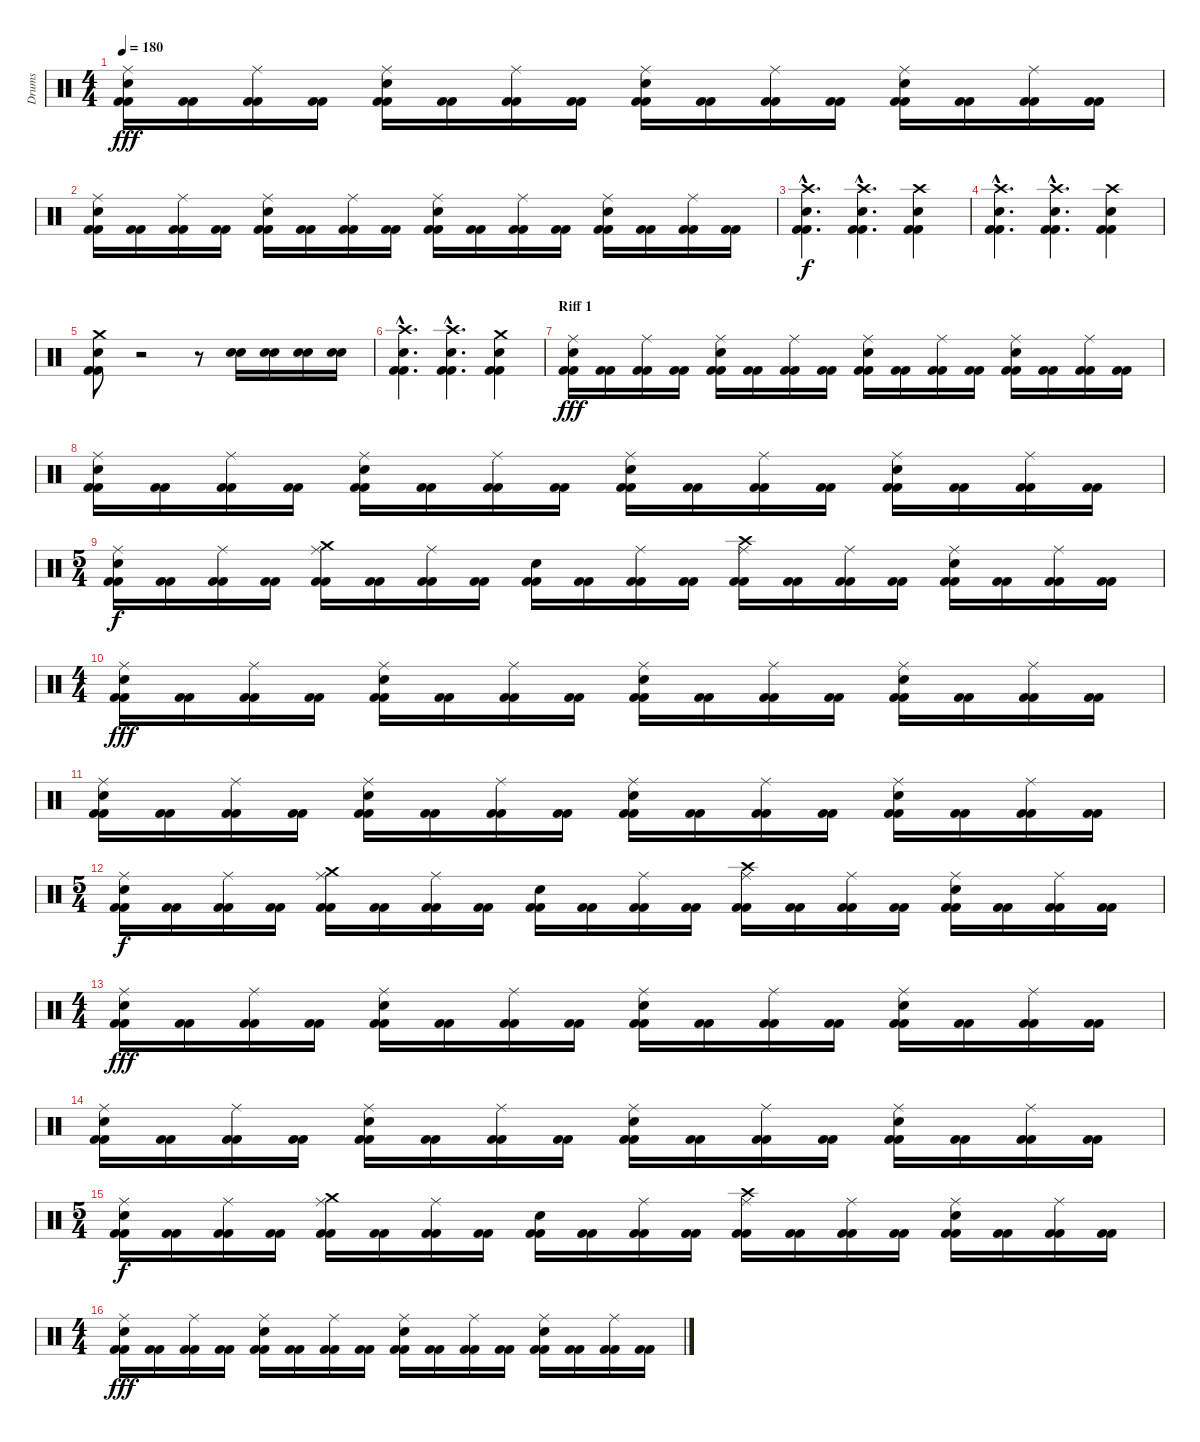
\track ("Drums" "Drums") {instrument percussion}
\staff {score}
\articulation defaults
\ts (4 4)
\tempo 180
\clef neutral
\ks c
("Kick (hit) 2" "Kick (hit) 2" "Electric Snare (hit)" "Ride (middle)").16{dy fff} ("Kick (hit) 2" "Kick (hit) 2").16 ("Kick (hit) 2" "Kick (hit) 2" "Ride (middle)").16 ("Kick (hit) 2" "Kick (hit) 2").16 ("Kick (hit) 2" "Kick (hit) 2" "Electric Snare (hit)" "Ride (middle)").16 ("Kick (hit) 2" "Kick (hit) 2").16 ("Kick (hit) 2" "Kick (hit) 2" "Ride (middle)").16 ("Kick (hit) 2" "Kick (hit) 2").16 ("Kick (hit) 2" "Kick (hit) 2" "Electric Snare (hit)" "Ride (middle)").16 ("Kick (hit) 2" "Kick (hit) 2").16 ("Kick (hit) 2" "Kick (hit) 2" "Ride (middle)").16 ("Kick (hit) 2" "Kick (hit) 2").16 ("Kick (hit) 2" "Kick (hit) 2" "Electric Snare (hit)" "Ride (middle)").16 ("Kick (hit) 2" "Kick (hit) 2").16 ("Kick (hit) 2" "Kick (hit) 2" "Ride (middle)").16 ("Kick (hit) 2" "Kick (hit) 2").16 |
("Kick (hit) 2" "Kick (hit) 2" "Electric Snare (hit)" "Ride (middle)").16 ("Kick (hit) 2" "Kick (hit) 2").16 ("Kick (hit) 2" "Kick (hit) 2" "Ride (middle)").16 ("Kick (hit) 2" "Kick (hit) 2").16 ("Kick (hit) 2" "Kick (hit) 2" "Electric Snare (hit)" "Ride (middle)").16 ("Kick (hit) 2" "Kick (hit) 2").16 ("Kick (hit) 2" "Kick (hit) 2" "Ride (middle)").16 ("Kick (hit) 2" "Kick (hit) 2").16 ("Kick (hit) 2" "Kick (hit) 2" "Electric Snare (hit)" "Ride (middle)").16 ("Kick (hit) 2" "Kick (hit) 2").16 ("Kick (hit) 2" "Kick (hit) 2" "Ride (middle)").16 ("Kick (hit) 2" "Kick (hit) 2").16 ("Kick (hit) 2" "Kick (hit) 2" "Electric Snare (hit)" "Ride (middle)").16 ("Kick (hit) 2" "Kick (hit) 2").16 ("Kick (hit) 2" "Kick (hit) 2" "Ride (middle)").16 ("Kick (hit) 2" "Kick (hit) 2").16 |
("Kick (hit) 2"{hac} "Kick (hit) 2"{hac} "Electric Snare (hit)"{hac} "Crash high (hit)"{hac}).4{d dy f} ("Kick (hit) 2"{hac} "Kick (hit) 2"{hac} "Electric Snare (hit)"{hac} "Crash high (hit)"{hac}).4{d} ("Kick (hit) 2" "Kick (hit) 2" "Electric Snare (hit)" "Crash high (hit)").4 |
("Kick (hit) 2"{hac} "Kick (hit) 2"{hac} "Electric Snare (hit)"{hac} "Crash high (hit)"{hac}).4{d} ("Kick (hit) 2"{hac} "Kick (hit) 2"{hac} "Electric Snare (hit)"{hac} "Crash high (hit)"{hac}).4{d} ("Kick (hit) 2" "Kick (hit) 2" "Electric Snare (hit)" "Crash high (hit)").4 |
("Kick (hit) 2" "Kick (hit) 2" "Electric Snare (hit)" "Crash medium (hit)").8 r.2 r.8 ("Snare (hit) 2" "Snare (hit) 2").16 ("Snare (hit) 2" "Snare (hit) 2").16 ("Snare (hit) 2" "Snare (hit) 2").16 ("Snare (hit) 2" "Snare (hit) 2").16 |
("Kick (hit) 2"{hac} "Kick (hit) 2"{hac} "Electric Snare (hit)"{hac} "Crash high (hit)"{hac}).4{d} ("Kick (hit) 2"{hac} "Kick (hit) 2"{hac} "Electric Snare (hit)"{hac} "Crash high (hit)"{hac}).4{d} ("Kick (hit) 2" "Kick (hit) 2" "Electric Snare (hit)" "Crash medium (hit)").4 |
\section ("" "Riff 1")
("Kick (hit) 2" "Kick (hit) 2" "Electric Snare (hit)" "Ride (middle)").16{dy fff} ("Kick (hit) 2" "Kick (hit) 2").16 ("Kick (hit) 2" "Kick (hit) 2" "Ride (middle)").16 ("Kick (hit) 2" "Kick (hit) 2").16 ("Kick (hit) 2" "Kick (hit) 2" "Electric Snare (hit)" "Ride (middle)").16 ("Kick (hit) 2" "Kick (hit) 2").16 ("Kick (hit) 2" "Kick (hit) 2" "Ride (middle)").16 ("Kick (hit) 2" "Kick (hit) 2").16 ("Kick (hit) 2" "Kick (hit) 2" "Electric Snare (hit)" "Ride (middle)").16 ("Kick (hit) 2" "Kick (hit) 2").16 ("Kick (hit) 2" "Kick (hit) 2" "Ride (middle)").16 ("Kick (hit) 2" "Kick (hit) 2").16 ("Kick (hit) 2" "Kick (hit) 2" "Electric Snare (hit)" "Ride (middle)").16 ("Kick (hit) 2" "Kick (hit) 2").16 ("Kick (hit) 2" "Kick (hit) 2" "Ride (middle)").16 ("Kick (hit) 2" "Kick (hit) 2").16 |
("Kick (hit) 2" "Kick (hit) 2" "Electric Snare (hit)" "Ride (middle)").16 ("Kick (hit) 2" "Kick (hit) 2").16 ("Kick (hit) 2" "Kick (hit) 2" "Ride (middle)").16 ("Kick (hit) 2" "Kick (hit) 2").16 ("Kick (hit) 2" "Kick (hit) 2" "Electric Snare (hit)" "Ride (middle)").16 ("Kick (hit) 2" "Kick (hit) 2").16 ("Kick (hit) 2" "Kick (hit) 2" "Ride (middle)").16 ("Kick (hit) 2" "Kick (hit) 2").16 ("Kick (hit) 2" "Kick (hit) 2" "Electric Snare (hit)" "Ride (middle)").16 ("Kick (hit) 2" "Kick (hit) 2").16 ("Kick (hit) 2" "Kick (hit) 2" "Ride (middle)").16 ("Kick (hit) 2" "Kick (hit) 2").16 ("Kick (hit) 2" "Kick (hit) 2" "Electric Snare (hit)" "Ride (middle)").16 ("Kick (hit) 2" "Kick (hit) 2").16 ("Kick (hit) 2" "Kick (hit) 2" "Ride (middle)").16 ("Kick (hit) 2" "Kick (hit) 2").16 |
\ts (5 4)
("Kick (hit) 2" "Kick (hit) 2" "Electric Snare (hit)" "Ride (middle)").16{dy f} ("Kick (hit) 2" "Kick (hit) 2").16 ("Kick (hit) 2" "Kick (hit) 2" "Ride (middle)").16 ("Kick (hit) 2" "Kick (hit) 2").16 ("Kick (hit) 2" "Kick (hit) 2" "Crash medium (hit)" "Ride (middle)").16 ("Kick (hit) 2" "Kick (hit) 2").16 ("Kick (hit) 2" "Kick (hit) 2" "Ride (middle)").16 ("Kick (hit) 2" "Kick (hit) 2").16 ("Kick (hit) 2" "Kick (hit) 2" "Snare (hit) 2").16 ("Kick (hit) 2" "Kick (hit) 2").16 ("Kick (hit) 2" "Kick (hit) 2" "Ride (middle)").16 ("Kick (hit) 2" "Kick (hit) 2").16 ("Kick (hit) 2" "Kick (hit) 2" "Crash high (hit)" "Ride (middle)").16 ("Kick (hit) 2" "Kick (hit) 2").16 ("Kick (hit) 2" "Kick (hit) 2" "Ride (middle)").16 ("Kick (hit) 2" "Kick (hit) 2").16 ("Kick (hit) 2" "Kick (hit) 2" "Electric Snare (hit)" "Ride (middle)").16 ("Kick (hit) 2" "Kick (hit) 2").16 ("Kick (hit) 2" "Kick (hit) 2" "Ride (middle)").16 ("Kick (hit) 2" "Kick (hit) 2").16 |
\ts (4 4)
("Kick (hit) 2" "Kick (hit) 2" "Electric Snare (hit)" "Ride (middle)").16{dy fff} ("Kick (hit) 2" "Kick (hit) 2").16 ("Kick (hit) 2" "Kick (hit) 2" "Ride (middle)").16 ("Kick (hit) 2" "Kick (hit) 2").16 ("Kick (hit) 2" "Kick (hit) 2" "Electric Snare (hit)" "Ride (middle)").16 ("Kick (hit) 2" "Kick (hit) 2").16 ("Kick (hit) 2" "Kick (hit) 2" "Ride (middle)").16 ("Kick (hit) 2" "Kick (hit) 2").16 ("Kick (hit) 2" "Kick (hit) 2" "Electric Snare (hit)" "Ride (middle)").16 ("Kick (hit) 2" "Kick (hit) 2").16 ("Kick (hit) 2" "Kick (hit) 2" "Ride (middle)").16 ("Kick (hit) 2" "Kick (hit) 2").16 ("Kick (hit) 2" "Kick (hit) 2" "Electric Snare (hit)" "Ride (middle)").16 ("Kick (hit) 2" "Kick (hit) 2").16 ("Kick (hit) 2" "Kick (hit) 2" "Ride (middle)").16 ("Kick (hit) 2" "Kick (hit) 2").16 |
("Kick (hit) 2" "Kick (hit) 2" "Electric Snare (hit)" "Ride (middle)").16 ("Kick (hit) 2" "Kick (hit) 2").16 ("Kick (hit) 2" "Kick (hit) 2" "Ride (middle)").16 ("Kick (hit) 2" "Kick (hit) 2").16 ("Kick (hit) 2" "Kick (hit) 2" "Electric Snare (hit)" "Ride (middle)").16 ("Kick (hit) 2" "Kick (hit) 2").16 ("Kick (hit) 2" "Kick (hit) 2" "Ride (middle)").16 ("Kick (hit) 2" "Kick (hit) 2").16 ("Kick (hit) 2" "Kick (hit) 2" "Electric Snare (hit)" "Ride (middle)").16 ("Kick (hit) 2" "Kick (hit) 2").16 ("Kick (hit) 2" "Kick (hit) 2" "Ride (middle)").16 ("Kick (hit) 2" "Kick (hit) 2").16 ("Kick (hit) 2" "Kick (hit) 2" "Electric Snare (hit)" "Ride (middle)").16 ("Kick (hit) 2" "Kick (hit) 2").16 ("Kick (hit) 2" "Kick (hit) 2" "Ride (middle)").16 ("Kick (hit) 2" "Kick (hit) 2").16 |
\ts (5 4)
("Kick (hit) 2" "Kick (hit) 2" "Electric Snare (hit)" "Ride (middle)").16{dy f} ("Kick (hit) 2" "Kick (hit) 2").16 ("Kick (hit) 2" "Kick (hit) 2" "Ride (middle)").16 ("Kick (hit) 2" "Kick (hit) 2").16 ("Kick (hit) 2" "Kick (hit) 2" "Crash medium (hit)" "Ride (middle)").16 ("Kick (hit) 2" "Kick (hit) 2").16 ("Kick (hit) 2" "Kick (hit) 2" "Ride (middle)").16 ("Kick (hit) 2" "Kick (hit) 2").16 ("Kick (hit) 2" "Kick (hit) 2" "Snare (hit) 2").16 ("Kick (hit) 2" "Kick (hit) 2").16 ("Kick (hit) 2" "Kick (hit) 2" "Ride (middle)").16 ("Kick (hit) 2" "Kick (hit) 2").16 ("Kick (hit) 2" "Kick (hit) 2" "Crash high (hit)" "Ride (middle)").16 ("Kick (hit) 2" "Kick (hit) 2").16 ("Kick (hit) 2" "Kick (hit) 2" "Ride (middle)").16 ("Kick (hit) 2" "Kick (hit) 2").16 ("Kick (hit) 2" "Kick (hit) 2" "Snare (hit) 2" "Ride (middle)").16 ("Kick (hit) 2" "Kick (hit) 2").16 ("Kick (hit) 2" "Kick (hit) 2" "Ride (middle)").16 ("Kick (hit) 2" "Kick (hit) 2").16 |
\ts (4 4)
("Kick (hit) 2" "Kick (hit) 2" "Electric Snare (hit)" "Ride (middle)").16{dy fff} ("Kick (hit) 2" "Kick (hit) 2").16 ("Kick (hit) 2" "Kick (hit) 2" "Ride (middle)").16 ("Kick (hit) 2" "Kick (hit) 2").16 ("Kick (hit) 2" "Kick (hit) 2" "Electric Snare (hit)" "Ride (middle)").16 ("Kick (hit) 2" "Kick (hit) 2").16 ("Kick (hit) 2" "Kick (hit) 2" "Ride (middle)").16 ("Kick (hit) 2" "Kick (hit) 2").16 ("Kick (hit) 2" "Kick (hit) 2" "Electric Snare (hit)" "Ride (middle)").16 ("Kick (hit) 2" "Kick (hit) 2").16 ("Kick (hit) 2" "Kick (hit) 2" "Ride (middle)").16 ("Kick (hit) 2" "Kick (hit) 2").16 ("Kick (hit) 2" "Kick (hit) 2" "Electric Snare (hit)" "Ride (middle)").16 ("Kick (hit) 2" "Kick (hit) 2").16 ("Kick (hit) 2" "Kick (hit) 2" "Ride (middle)").16 ("Kick (hit) 2" "Kick (hit) 2").16 |
("Kick (hit) 2" "Kick (hit) 2" "Electric Snare (hit)" "Ride (middle)").16 ("Kick (hit) 2" "Kick (hit) 2").16 ("Kick (hit) 2" "Kick (hit) 2" "Ride (middle)").16 ("Kick (hit) 2" "Kick (hit) 2").16 ("Kick (hit) 2" "Kick (hit) 2" "Electric Snare (hit)" "Ride (middle)").16 ("Kick (hit) 2" "Kick (hit) 2").16 ("Kick (hit) 2" "Kick (hit) 2" "Ride (middle)").16 ("Kick (hit) 2" "Kick (hit) 2").16 ("Kick (hit) 2" "Kick (hit) 2" "Electric Snare (hit)" "Ride (middle)").16 ("Kick (hit) 2" "Kick (hit) 2").16 ("Kick (hit) 2" "Kick (hit) 2" "Ride (middle)").16 ("Kick (hit) 2" "Kick (hit) 2").16 ("Kick (hit) 2" "Kick (hit) 2" "Electric Snare (hit)" "Ride (middle)").16 ("Kick (hit) 2" "Kick (hit) 2").16 ("Kick (hit) 2" "Kick (hit) 2" "Ride (middle)").16 ("Kick (hit) 2" "Kick (hit) 2").16 |
\ts (5 4)
("Kick (hit) 2" "Kick (hit) 2" "Electric Snare (hit)" "Ride (middle)").16{dy f} ("Kick (hit) 2" "Kick (hit) 2").16 ("Kick (hit) 2" "Kick (hit) 2" "Ride (middle)").16 ("Kick (hit) 2" "Kick (hit) 2").16 ("Kick (hit) 2" "Kick (hit) 2" "Crash medium (hit)" "Ride (middle)").16 ("Kick (hit) 2" "Kick (hit) 2").16 ("Kick (hit) 2" "Kick (hit) 2" "Ride (middle)").16 ("Kick (hit) 2" "Kick (hit) 2").16 ("Kick (hit) 2" "Kick (hit) 2" "Snare (hit) 2").16 ("Kick (hit) 2" "Kick (hit) 2").16 ("Kick (hit) 2" "Kick (hit) 2" "Ride (middle)").16 ("Kick (hit) 2" "Kick (hit) 2").16 ("Kick (hit) 2" "Kick (hit) 2" "Crash high (hit)" "Ride (middle)").16 ("Kick (hit) 2" "Kick (hit) 2").16 ("Kick (hit) 2" "Kick (hit) 2" "Ride (middle)").16 ("Kick (hit) 2" "Kick (hit) 2").16 ("Kick (hit) 2" "Kick (hit) 2" "Electric Snare (hit)" "Ride (middle)").16 ("Kick (hit) 2" "Kick (hit) 2").16 ("Kick (hit) 2" "Kick (hit) 2" "Ride (middle)").16 ("Kick (hit) 2" "Kick (hit) 2").16 |
\ts (4 4)
("Kick (hit) 2" "Kick (hit) 2" "Electric Snare (hit)" "Ride (middle)").16{dy fff} ("Kick (hit) 2" "Kick (hit) 2").16 ("Kick (hit) 2" "Kick (hit) 2" "Ride (middle)").16 ("Kick (hit) 2" "Kick (hit) 2").16 ("Kick (hit) 2" "Kick (hit) 2" "Electric Snare (hit)" "Ride (middle)").16 ("Kick (hit) 2" "Kick (hit) 2").16 ("Kick (hit) 2" "Kick (hit) 2" "Ride (middle)").16 ("Kick (hit) 2" "Kick (hit) 2").16 ("Kick (hit) 2" "Kick (hit) 2" "Electric Snare (hit)" "Ride (middle)").16 ("Kick (hit) 2" "Kick (hit) 2").16 ("Kick (hit) 2" "Kick (hit) 2" "Ride (middle)").16 ("Kick (hit) 2" "Kick (hit) 2").16 ("Kick (hit) 2" "Kick (hit) 2" "Electric Snare (hit)" "Ride (middle)").16 ("Kick (hit) 2" "Kick (hit) 2").16 ("Kick (hit) 2" "Kick (hit) 2" "Ride (middle)").16 ("Kick (hit) 2" "Kick (hit) 2").16
